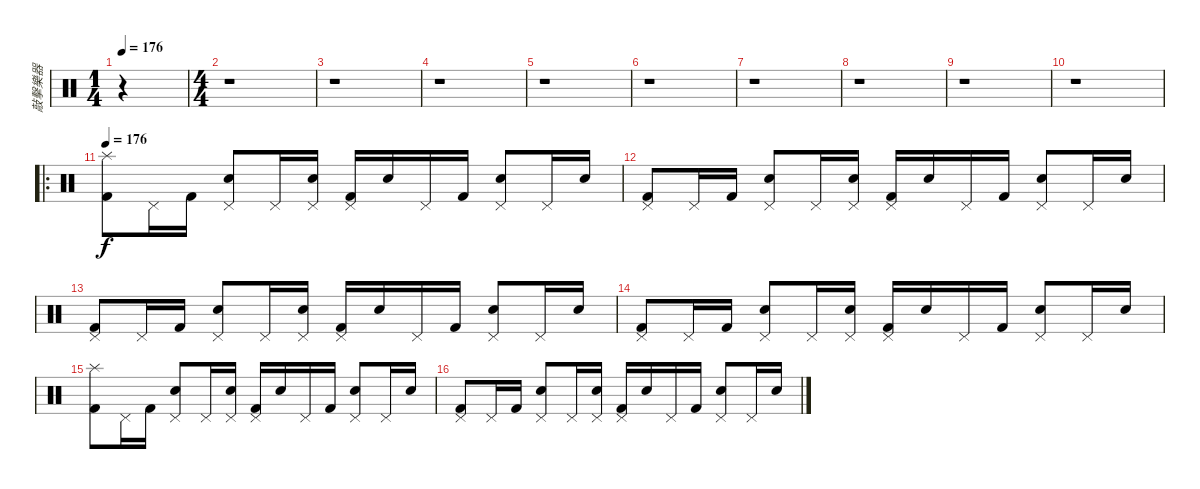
\track ("敲擊樂器" "敲擊樂器") {instrument percussion}
\staff {score}
\articulation defaults
\ts (1 4)
\tempo 176
\tempo 83
\tempo 176
\clef neutral
\ks c
r.4{dy f} |
\ts (4 4)
r.1 |
r.1 |
r.1 |
r.1 |
r.1 |
r.1 |
r.1 |
r.1 |
r.1 |
\ro
\tempo 176
("Splash (hit)" "Kick (hit) 2").8 "Pedal Hi-Hat (hit)".16 "Kick (hit) 2".16 ("Pedal Hi-Hat (hit)" "Snare (hit) 2").8 "Pedal Hi-Hat (hit)".16 ("Pedal Hi-Hat (hit)" "Snare (hit) 2").16 ("Pedal Hi-Hat (hit)" "Kick (hit) 2").16 "Snare (hit) 2".16 "Pedal Hi-Hat (hit)".16 "Kick (hit) 2".16 ("Pedal Hi-Hat (hit)" "Snare (hit) 2").8 "Pedal Hi-Hat (hit)".16 "Snare (hit) 2".16 |
("Pedal Hi-Hat (hit)" "Kick (hit) 2").8 "Pedal Hi-Hat (hit)".16 "Kick (hit) 2".16 ("Pedal Hi-Hat (hit)" "Snare (hit) 2").8 "Pedal Hi-Hat (hit)".16 ("Pedal Hi-Hat (hit)" "Snare (hit) 2").16 ("Pedal Hi-Hat (hit)" "Kick (hit) 2").16 "Snare (hit) 2".16 "Pedal Hi-Hat (hit)".16 "Kick (hit) 2".16 ("Pedal Hi-Hat (hit)" "Snare (hit) 2").8 "Pedal Hi-Hat (hit)".16 "Snare (hit) 2".16 |
("Pedal Hi-Hat (hit)" "Kick (hit) 2").8 "Pedal Hi-Hat (hit)".16 "Kick (hit) 2".16 ("Pedal Hi-Hat (hit)" "Snare (hit) 2").8 "Pedal Hi-Hat (hit)".16 ("Pedal Hi-Hat (hit)" "Snare (hit) 2").16 ("Pedal Hi-Hat (hit)" "Kick (hit) 2").16 "Snare (hit) 2".16 "Pedal Hi-Hat (hit)".16 "Kick (hit) 2".16 ("Pedal Hi-Hat (hit)" "Snare (hit) 2").8 "Pedal Hi-Hat (hit)".16 "Snare (hit) 2".16 |
("Pedal Hi-Hat (hit)" "Kick (hit) 2").8 "Pedal Hi-Hat (hit)".16 "Kick (hit) 2".16 ("Pedal Hi-Hat (hit)" "Snare (hit) 2").8 "Pedal Hi-Hat (hit)".16 ("Pedal Hi-Hat (hit)" "Snare (hit) 2").16 ("Pedal Hi-Hat (hit)" "Kick (hit) 2").16 "Snare (hit) 2".16 "Pedal Hi-Hat (hit)".16 "Kick (hit) 2".16 ("Pedal Hi-Hat (hit)" "Snare (hit) 2").8 "Pedal Hi-Hat (hit)".16 "Snare (hit) 2".16 |
("Splash (hit)" "Kick (hit) 2").8 "Pedal Hi-Hat (hit)".16 "Kick (hit) 2".16 ("Pedal Hi-Hat (hit)" "Snare (hit) 2").8 "Pedal Hi-Hat (hit)".16 ("Pedal Hi-Hat (hit)" "Snare (hit) 2").16 ("Pedal Hi-Hat (hit)" "Kick (hit) 2").16 "Snare (hit) 2".16 "Pedal Hi-Hat (hit)".16 "Kick (hit) 2".16 ("Pedal Hi-Hat (hit)" "Snare (hit) 2").8 "Pedal Hi-Hat (hit)".16 "Snare (hit) 2".16 |
("Pedal Hi-Hat (hit)" "Kick (hit) 2").8 "Pedal Hi-Hat (hit)".16 "Kick (hit) 2".16 ("Pedal Hi-Hat (hit)" "Snare (hit) 2").8 "Pedal Hi-Hat (hit)".16 ("Pedal Hi-Hat (hit)" "Snare (hit) 2").16 ("Pedal Hi-Hat (hit)" "Kick (hit) 2").16 "Snare (hit) 2".16 "Pedal Hi-Hat (hit)".16 "Kick (hit) 2".16 ("Pedal Hi-Hat (hit)" "Snare (hit) 2").8 "Pedal Hi-Hat (hit)".16 "Snare (hit) 2".16
